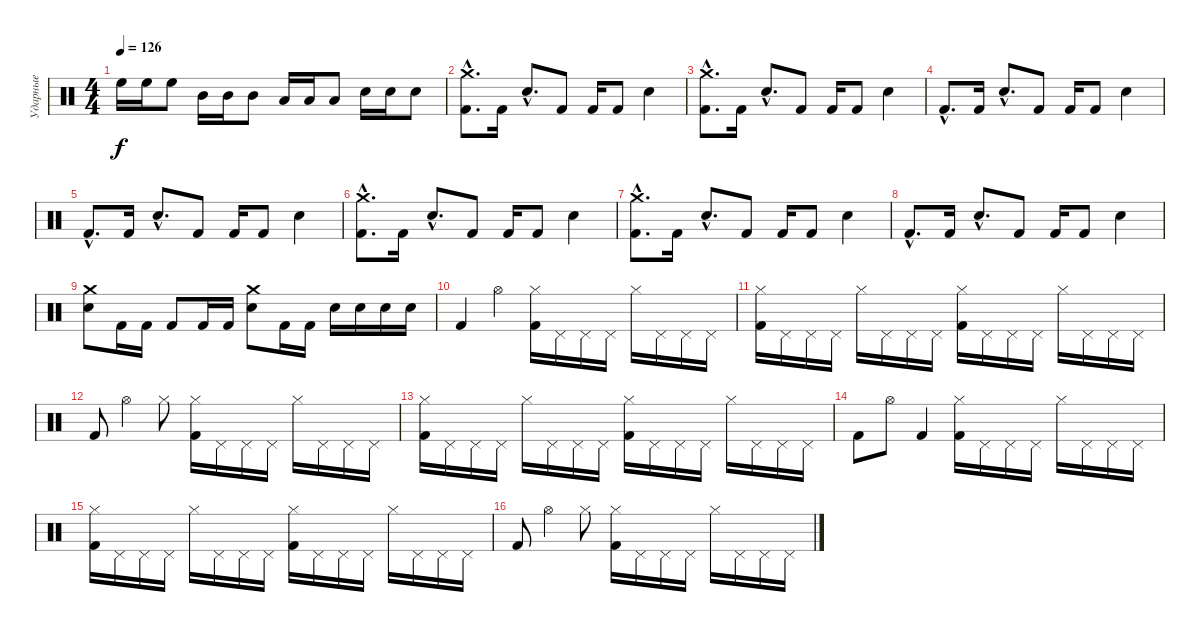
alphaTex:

\track ("Ударные" "Ударные") {instrument percussion}
\staff {score}
\articulation defaults
\ts (4 4)
\tempo 126
\clef neutral
\ks c "High Floor Tom (hit)".16{dy f} "High Floor Tom (hit)".16 "High Floor Tom (hit)".8 "Mid Tom (hit)".16 "Mid Tom (hit)".16 "Mid Tom (hit)".8 "Low Tom (hit)".16 "Low Tom (hit)".16 "Low Tom (hit)".8 "Snare (hit) 2".16 "Snare (hit) 2".16 "Snare (hit) 2".8
|
("Kick (hit) 2"{hac} "Crash medium (hit)"{hac}).8{d} "Kick (hit) 2".16 "Snare (hit) 2"{hac}.8{d} "Kick (hit) 2".8 "Kick (hit) 2".16 "Kick (hit) 2".8 "Snare (hit) 2".4 |
("Kick (hit) 2"{hac} "Crash medium (hit)"{hac}).8{d} "Kick (hit) 2".16 "Snare (hit) 2"{hac}.8{d} "Kick (hit) 2".8 "Kick (hit) 2".16 "Kick (hit) 2".8 "Snare (hit) 2".4 |
"Kick (hit) 2"{hac}.8{d} "Kick (hit) 2".16 "Snare (hit) 2"{hac}.8{d} "Kick (hit) 2".8 "Kick (hit) 2".16 "Kick (hit) 2".8 "Snare (hit) 2".4 |
"Kick (hit) 2"{hac}.8{d} "Kick (hit) 2".16 "Snare (hit) 2"{hac}.8{d} "Kick (hit) 2".8 "Kick (hit) 2".16 "Kick (hit) 2".8 "Snare (hit) 2".4 |
("Kick (hit) 2"{hac} "Crash medium (hit)"{hac}).8{d} "Kick (hit) 2".16 "Snare (hit) 2"{hac}.8{d} "Kick (hit) 2".8 "Kick (hit) 2".16 "Kick (hit) 2".8 "Snare (hit) 2".4 |
("Kick (hit) 2"{hac} "Crash medium (hit)"{hac}).8{d} "Kick (hit) 2".16 "Snare (hit) 2"{hac}.8{d} "Kick (hit) 2".8 "Kick (hit) 2".16 "Kick (hit) 2".8 "Snare (hit) 2".4 |
"Kick (hit) 2"{hac}.8{d} "Kick (hit) 2".16 "Snare (hit) 2"{hac}.8{d} "Kick (hit) 2".8 "Kick (hit) 2".16 "Kick (hit) 2".8 "Snare (hit) 2".4 |
("Crash medium (hit)" "Snare (hit) 2").8 "Kick (hit) 2".16 "Kick (hit) 2".16 "Kick (hit) 2".8 "Kick (hit) 2".16 "Kick (hit) 2".16 ("Crash medium (hit)" "Snare (hit) 2").8 "Kick (hit) 2".16 "Kick (hit) 2".16 "Snare (hit) 2".16 "Snare (hit) 2".16 "Snare (hit) 2".16 "Snare (hit) 2".16 |
"Kick (hit) 2".4 "Hi-Hat (open)".4 ("Hi-Hat (closed)" "Kick (hit) 2").16 "Pedal Hi-Hat (hit)".16 "Pedal Hi-Hat (hit)".16 "Pedal Hi-Hat (hit)".16 "Hi-Hat (closed)".16 "Pedal Hi-Hat (hit)".16 "Pedal Hi-Hat (hit)".16 "Pedal Hi-Hat (hit)".16 |
("Hi-Hat (closed)" "Kick (hit) 2").16 "Pedal Hi-Hat (hit)".16 "Pedal Hi-Hat (hit)".16 "Pedal Hi-Hat (hit)".16 "Hi-Hat (closed)".16 "Pedal Hi-Hat (hit)".16 "Pedal Hi-Hat (hit)".16 "Pedal Hi-Hat (hit)".16 ("Hi-Hat (closed)" "Kick (hit) 2").16 "Pedal Hi-Hat (hit)".16 "Pedal Hi-Hat (hit)".16 "Pedal Hi-Hat (hit)".16 "Hi-Hat (closed)".16 "Pedal Hi-Hat (hit)".16 "Pedal Hi-Hat (hit)".16 "Pedal Hi-Hat (hit)".16 |
"Kick (hit) 2".8 "Hi-Hat (open)".4 "Hi-Hat (closed)".8 ("Hi-Hat (closed)" "Kick (hit) 2").16 "Pedal Hi-Hat (hit)".16 "Pedal Hi-Hat (hit)".16 "Pedal Hi-Hat (hit)".16 "Hi-Hat (closed)".16 "Pedal Hi-Hat (hit)".16 "Pedal Hi-Hat (hit)".16 "Pedal Hi-Hat (hit)".16 |
("Hi-Hat (closed)" "Kick (hit) 2").16 "Pedal Hi-Hat (hit)".16 "Pedal Hi-Hat (hit)".16 "Pedal Hi-Hat (hit)".16 "Hi-Hat (closed)".16 "Pedal Hi-Hat (hit)".16 "Pedal Hi-Hat (hit)".16 "Pedal Hi-Hat (hit)".16 ("Hi-Hat (closed)" "Kick (hit) 2").16 "Pedal Hi-Hat (hit)".16 "Pedal Hi-Hat (hit)".16 "Pedal Hi-Hat (hit)".16 "Hi-Hat (closed)".16 "Pedal Hi-Hat (hit)".16 "Pedal Hi-Hat (hit)".16 "Pedal Hi-Hat (hit)".16 |
"Kick (hit) 2".8 "Hi-Hat (open)".8 "Kick (hit) 2".4 ("Hi-Hat (closed)" "Kick (hit) 2").16 "Pedal Hi-Hat (hit)".16 "Pedal Hi-Hat (hit)".16 "Pedal Hi-Hat (hit)".16 "Hi-Hat (closed)".16 "Pedal Hi-Hat (hit)".16 "Pedal Hi-Hat (hit)".16 "Pedal Hi-Hat (hit)".16 |
("Hi-Hat (closed)" "Kick (hit) 2").16 "Pedal Hi-Hat (hit)".16 "Pedal Hi-Hat (hit)".16 "Pedal Hi-Hat (hit)".16 "Hi-Hat (closed)".16 "Pedal Hi-Hat (hit)".16 "Pedal Hi-Hat (hit)".16 "Pedal Hi-Hat (hit)".16 ("Hi-Hat (closed)" "Kick (hit) 2").16 "Pedal Hi-Hat (hit)".16 "Pedal Hi-Hat (hit)".16 "Pedal Hi-Hat (hit)".16 "Hi-Hat (closed)".16 "Pedal Hi-Hat (hit)".16 "Pedal Hi-Hat (hit)".16 "Pedal Hi-Hat (hit)".16 |
"Kick (hit) 2".8 "Hi-Hat (open)".4 "Hi-Hat (closed)".8 ("Hi-Hat (closed)" "Kick (hit) 2").16 "Pedal Hi-Hat (hit)".16 "Pedal Hi-Hat (hit)".16 "Pedal Hi-Hat (hit)".16 "Hi-Hat (closed)".16 "Pedal Hi-Hat (hit)".16 "Pedal Hi-Hat (hit)".16 "Pedal Hi-Hat (hit)".16
